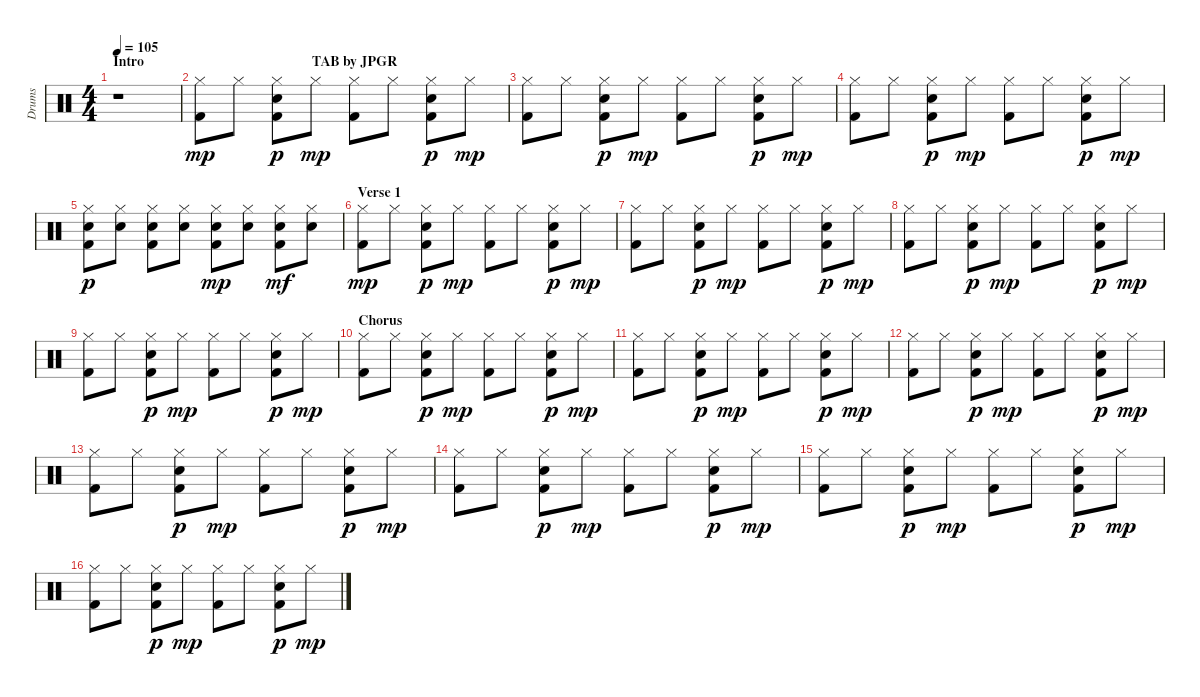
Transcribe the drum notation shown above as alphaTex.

\track ("Drums" "Drums") {instrument percussion}
\staff {score}
\articulation defaults
\ts (4 4)
\section ("" "Intro                                                TAB by JPGR")
\tempo 105
\clef neutral
\ks c
r.1{dy mp} |
("Hi-Hat (closed)" "Kick (hit) 2").8 "Hi-Hat (closed)".8 ("Hi-Hat (closed)" "Snare (hit) 2" "Kick (hit) 2").8{dy p} "Hi-Hat (closed)".8{dy mp} ("Hi-Hat (closed)" "Kick (hit) 2").8 "Hi-Hat (closed)".8 ("Hi-Hat (closed)" "Snare (hit) 2" "Kick (hit) 2").8{dy p} "Hi-Hat (closed)".8{dy mp} |
("Hi-Hat (closed)" "Kick (hit) 2").8 "Hi-Hat (closed)".8 ("Hi-Hat (closed)" "Snare (hit) 2" "Kick (hit) 2").8{dy p} "Hi-Hat (closed)".8{dy mp} ("Hi-Hat (closed)" "Kick (hit) 2").8 "Hi-Hat (closed)".8 ("Hi-Hat (closed)" "Snare (hit) 2" "Kick (hit) 2").8{dy p} "Hi-Hat (closed)".8{dy mp} |
("Hi-Hat (closed)" "Kick (hit) 2").8 "Hi-Hat (closed)".8 ("Hi-Hat (closed)" "Snare (hit) 2" "Kick (hit) 2").8{dy p} "Hi-Hat (closed)".8{dy mp} ("Hi-Hat (closed)" "Kick (hit) 2").8 "Hi-Hat (closed)".8 ("Hi-Hat (closed)" "Snare (hit) 2" "Kick (hit) 2").8{dy p} "Hi-Hat (closed)".8{dy mp} |
("Hi-Hat (closed)" "Snare (hit) 2" "Kick (hit) 2").8{dy p} ("Hi-Hat (closed)" "Snare (hit) 2").8 ("Hi-Hat (closed)" "Snare (hit) 2" "Kick (hit) 2").8 ("Hi-Hat (closed)" "Snare (hit) 2").8 ("Hi-Hat (closed)" "Snare (hit) 2" "Kick (hit) 2").8{dy mp} ("Hi-Hat (closed)" "Snare (hit) 2").8 ("Hi-Hat (closed)" "Snare (hit) 2" "Kick (hit) 2").8{dy mf} ("Hi-Hat (closed)" "Snare (hit) 2").8 |
\section ("" "Verse 1")
("Hi-Hat (closed)" "Kick (hit) 2").8{dy mp} "Hi-Hat (closed)".8 ("Hi-Hat (closed)" "Snare (hit) 2" "Kick (hit) 2").8{dy p} "Hi-Hat (closed)".8{dy mp} ("Hi-Hat (closed)" "Kick (hit) 2").8 "Hi-Hat (closed)".8 ("Hi-Hat (closed)" "Snare (hit) 2" "Kick (hit) 2").8{dy p} "Hi-Hat (closed)".8{dy mp} |
("Hi-Hat (closed)" "Kick (hit) 2").8 "Hi-Hat (closed)".8 ("Hi-Hat (closed)" "Snare (hit) 2" "Kick (hit) 2").8{dy p} "Hi-Hat (closed)".8{dy mp} ("Hi-Hat (closed)" "Kick (hit) 2").8 "Hi-Hat (closed)".8 ("Hi-Hat (closed)" "Snare (hit) 2" "Kick (hit) 2").8{dy p} "Hi-Hat (closed)".8{dy mp} |
("Hi-Hat (closed)" "Kick (hit) 2").8 "Hi-Hat (closed)".8 ("Hi-Hat (closed)" "Snare (hit) 2" "Kick (hit) 2").8{dy p} "Hi-Hat (closed)".8{dy mp} ("Hi-Hat (closed)" "Kick (hit) 2").8 "Hi-Hat (closed)".8 ("Hi-Hat (closed)" "Snare (hit) 2" "Kick (hit) 2").8{dy p} "Hi-Hat (closed)".8{dy mp} |
("Hi-Hat (closed)" "Kick (hit) 2").8 "Hi-Hat (closed)".8 ("Hi-Hat (closed)" "Snare (hit) 2" "Kick (hit) 2").8{dy p} "Hi-Hat (closed)".8{dy mp} ("Hi-Hat (closed)" "Kick (hit) 2").8 "Hi-Hat (closed)".8 ("Hi-Hat (closed)" "Snare (hit) 2" "Kick (hit) 2").8{dy p} "Hi-Hat (closed)".8{dy mp} |
\section ("" "Chorus")
("Hi-Hat (closed)" "Kick (hit) 2").8 "Hi-Hat (closed)".8 ("Hi-Hat (closed)" "Snare (hit) 2" "Kick (hit) 2").8{dy p} "Hi-Hat (closed)".8{dy mp} ("Hi-Hat (closed)" "Kick (hit) 2").8 "Hi-Hat (closed)".8 ("Hi-Hat (closed)" "Snare (hit) 2" "Kick (hit) 2").8{dy p} "Hi-Hat (closed)".8{dy mp} |
("Hi-Hat (closed)" "Kick (hit) 2").8 "Hi-Hat (closed)".8 ("Hi-Hat (closed)" "Snare (hit) 2" "Kick (hit) 2").8{dy p} "Hi-Hat (closed)".8{dy mp} ("Hi-Hat (closed)" "Kick (hit) 2").8 "Hi-Hat (closed)".8 ("Hi-Hat (closed)" "Snare (hit) 2" "Kick (hit) 2").8{dy p} "Hi-Hat (closed)".8{dy mp} |
("Hi-Hat (closed)" "Kick (hit) 2").8 "Hi-Hat (closed)".8 ("Hi-Hat (closed)" "Snare (hit) 2" "Kick (hit) 2").8{dy p} "Hi-Hat (closed)".8{dy mp} ("Hi-Hat (closed)" "Kick (hit) 2").8 "Hi-Hat (closed)".8 ("Hi-Hat (closed)" "Snare (hit) 2" "Kick (hit) 2").8{dy p} "Hi-Hat (closed)".8{dy mp} |
("Hi-Hat (closed)" "Kick (hit) 2").8 "Hi-Hat (closed)".8 ("Hi-Hat (closed)" "Snare (hit) 2" "Kick (hit) 2").8{dy p} "Hi-Hat (closed)".8{dy mp} ("Hi-Hat (closed)" "Kick (hit) 2").8 "Hi-Hat (closed)".8 ("Hi-Hat (closed)" "Snare (hit) 2" "Kick (hit) 2").8{dy p} "Hi-Hat (closed)".8{dy mp} |
("Hi-Hat (closed)" "Kick (hit) 2").8 "Hi-Hat (closed)".8 ("Hi-Hat (closed)" "Snare (hit) 2" "Kick (hit) 2").8{dy p} "Hi-Hat (closed)".8{dy mp} ("Hi-Hat (closed)" "Kick (hit) 2").8 "Hi-Hat (closed)".8 ("Hi-Hat (closed)" "Snare (hit) 2" "Kick (hit) 2").8{dy p} "Hi-Hat (closed)".8{dy mp} |
("Hi-Hat (closed)" "Kick (hit) 2").8 "Hi-Hat (closed)".8 ("Hi-Hat (closed)" "Snare (hit) 2" "Kick (hit) 2").8{dy p} "Hi-Hat (closed)".8{dy mp} ("Hi-Hat (closed)" "Kick (hit) 2").8 "Hi-Hat (closed)".8 ("Hi-Hat (closed)" "Snare (hit) 2" "Kick (hit) 2").8{dy p} "Hi-Hat (closed)".8{dy mp} |
("Hi-Hat (closed)" "Kick (hit) 2").8 "Hi-Hat (closed)".8 ("Hi-Hat (closed)" "Snare (hit) 2" "Kick (hit) 2").8{dy p} "Hi-Hat (closed)".8{dy mp} ("Hi-Hat (closed)" "Kick (hit) 2").8 "Hi-Hat (closed)".8 ("Hi-Hat (closed)" "Snare (hit) 2" "Kick (hit) 2").8{dy p} "Hi-Hat (closed)".8{dy mp}
